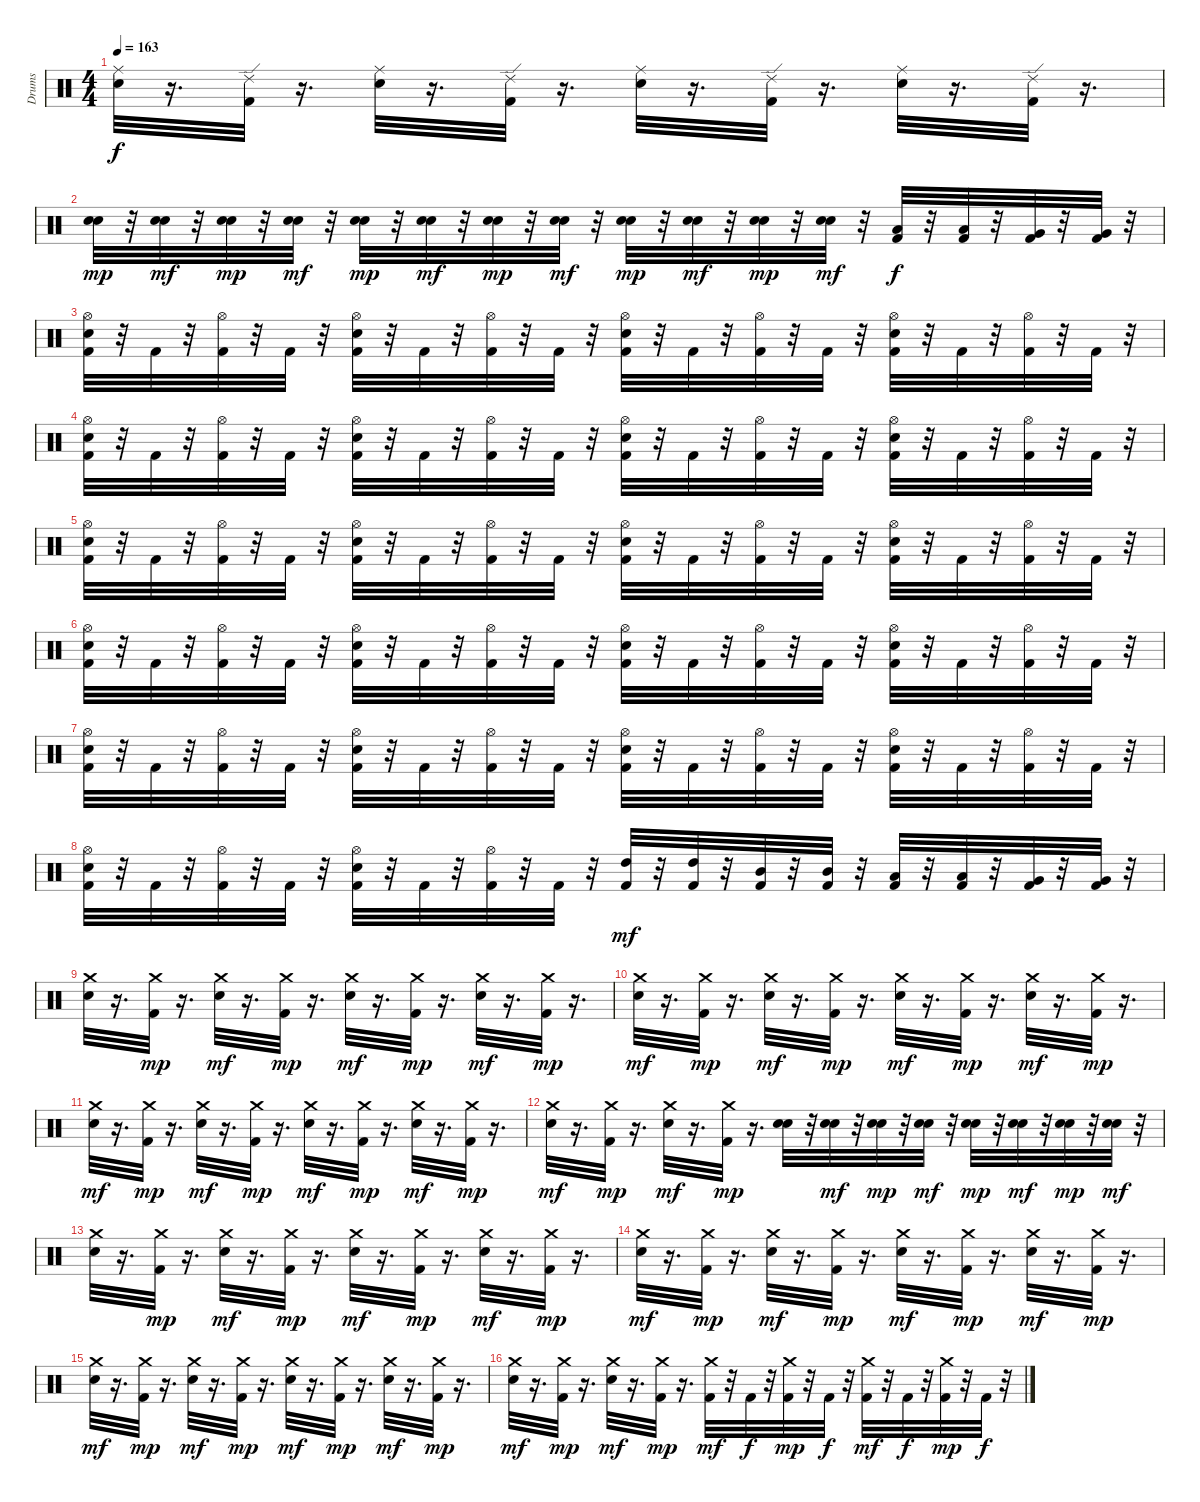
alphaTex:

\track ("Drums" "Drums") {instrument percussion}
\staff {score}
\articulation defaults
\ts (4 4)
\tempo 163
\clef neutral
\ks c
("Snare (hit) 2" "Ride (middle)").32{dy f} r.16{d} ("Kick (hit) 2" "Ride (edge) 2").32 r.16{d} ("Snare (hit) 2" "Ride (middle)").32 r.16{d} ("Kick (hit) 2" "Ride (edge) 2").32 r.16{d} ("Snare (hit) 2" "Ride (middle)").32 r.16{d} ("Kick (hit) 2" "Ride (edge) 2").32 r.16{d} ("Snare (hit) 2" "Ride (middle)").32 r.16{d} ("Kick (hit) 2" "Ride (edge) 2").32 r.16{d} |
("Snare (hit) 2" "Electric Snare (hit)").32{dy mp} r.32 ("Snare (hit) 2" "Electric Snare (hit)").32{dy mf} r.32 ("Snare (hit) 2" "Electric Snare (hit)").32{dy mp} r.32 ("Snare (hit) 2" "Electric Snare (hit)").32{dy mf} r.32 ("Snare (hit) 2" "Electric Snare (hit)").32{dy mp} r.32 ("Snare (hit) 2" "Electric Snare (hit)").32{dy mf} r.32 ("Snare (hit) 2" "Electric Snare (hit)").32{dy mp} r.32 ("Snare (hit) 2" "Electric Snare (hit)").32{dy mf} r.32 ("Snare (hit) 2" "Electric Snare (hit)").32{dy mp} r.32 ("Snare (hit) 2" "Electric Snare (hit)").32{dy mf} r.32 ("Snare (hit) 2" "Electric Snare (hit)").32{dy mp} r.32 ("Snare (hit) 2" "Electric Snare (hit)").32{dy mf} r.32 ("Kick (hit) 2" "Low Tom (hit)").32{dy f} r.32 ("Kick (hit) 2" "Low Tom (hit)").32 r.32 ("Kick (hit) 2" "Very Low Tom (hit)").32 r.32 ("Kick (hit) 2" "Very Low Tom (hit)").32 r.32 |
("Kick (hit) 2" "Snare (hit) 2" "Hi-Hat (open)").32 r.32 "Kick (hit) 2".32 r.32 ("Kick (hit) 2" "Hi-Hat (open)").32 r.32 "Kick (hit) 2".32 r.32 ("Kick (hit) 2" "Snare (hit) 2" "Hi-Hat (open)").32 r.32 "Kick (hit) 2".32 r.32 ("Kick (hit) 2" "Hi-Hat (open)").32 r.32 "Kick (hit) 2".32 r.32 ("Kick (hit) 2" "Snare (hit) 2" "Hi-Hat (open)").32 r.32 "Kick (hit) 2".32 r.32 ("Kick (hit) 2" "Hi-Hat (open)").32 r.32 "Kick (hit) 2".32 r.32 ("Kick (hit) 2" "Snare (hit) 2" "Hi-Hat (open)").32 r.32 "Kick (hit) 2".32 r.32 ("Kick (hit) 2" "Hi-Hat (open)").32 r.32 "Kick (hit) 2".32 r.32 |
("Kick (hit) 2" "Snare (hit) 2" "Hi-Hat (open)").32 r.32 "Kick (hit) 2".32 r.32 ("Kick (hit) 2" "Hi-Hat (open)").32 r.32 "Kick (hit) 2".32 r.32 ("Kick (hit) 2" "Snare (hit) 2" "Hi-Hat (open)").32 r.32 "Kick (hit) 2".32 r.32 ("Kick (hit) 2" "Hi-Hat (open)").32 r.32 "Kick (hit) 2".32 r.32 ("Kick (hit) 2" "Snare (hit) 2" "Hi-Hat (open)").32 r.32 "Kick (hit) 2".32 r.32 ("Kick (hit) 2" "Hi-Hat (open)").32 r.32 "Kick (hit) 2".32 r.32 ("Kick (hit) 2" "Snare (hit) 2" "Hi-Hat (open)").32 r.32 "Kick (hit) 2".32 r.32 ("Kick (hit) 2" "Hi-Hat (open)").32 r.32 "Kick (hit) 2".32 r.32 |
("Kick (hit) 2" "Snare (hit) 2" "Hi-Hat (open)").32 r.32 "Kick (hit) 2".32 r.32 ("Kick (hit) 2" "Hi-Hat (open)").32 r.32 "Kick (hit) 2".32 r.32 ("Kick (hit) 2" "Snare (hit) 2" "Hi-Hat (open)").32 r.32 "Kick (hit) 2".32 r.32 ("Kick (hit) 2" "Hi-Hat (open)").32 r.32 "Kick (hit) 2".32 r.32 ("Kick (hit) 2" "Snare (hit) 2" "Hi-Hat (open)").32 r.32 "Kick (hit) 2".32 r.32 ("Kick (hit) 2" "Hi-Hat (open)").32 r.32 "Kick (hit) 2".32 r.32 ("Kick (hit) 2" "Snare (hit) 2" "Hi-Hat (open)").32 r.32 "Kick (hit) 2".32 r.32 ("Kick (hit) 2" "Hi-Hat (open)").32 r.32 "Kick (hit) 2".32 r.32 |
("Kick (hit) 2" "Snare (hit) 2" "Hi-Hat (open)").32 r.32 "Kick (hit) 2".32 r.32 ("Kick (hit) 2" "Hi-Hat (open)").32 r.32 "Kick (hit) 2".32 r.32 ("Kick (hit) 2" "Snare (hit) 2" "Hi-Hat (open)").32 r.32 "Kick (hit) 2".32 r.32 ("Kick (hit) 2" "Hi-Hat (open)").32 r.32 "Kick (hit) 2".32 r.32 ("Kick (hit) 2" "Snare (hit) 2" "Hi-Hat (open)").32 r.32 "Kick (hit) 2".32 r.32 ("Kick (hit) 2" "Hi-Hat (open)").32 r.32 "Kick (hit) 2".32 r.32 ("Kick (hit) 2" "Snare (hit) 2" "Hi-Hat (open)").32 r.32 "Kick (hit) 2".32 r.32 ("Kick (hit) 2" "Hi-Hat (open)").32 r.32 "Kick (hit) 2".32 r.32 |
("Kick (hit) 2" "Snare (hit) 2" "Hi-Hat (open)").32 r.32 "Kick (hit) 2".32 r.32 ("Kick (hit) 2" "Hi-Hat (open)").32 r.32 "Kick (hit) 2".32 r.32 ("Kick (hit) 2" "Snare (hit) 2" "Hi-Hat (open)").32 r.32 "Kick (hit) 2".32 r.32 ("Kick (hit) 2" "Hi-Hat (open)").32 r.32 "Kick (hit) 2".32 r.32 ("Kick (hit) 2" "Snare (hit) 2" "Hi-Hat (open)").32 r.32 "Kick (hit) 2".32 r.32 ("Kick (hit) 2" "Hi-Hat (open)").32 r.32 "Kick (hit) 2".32 r.32 ("Kick (hit) 2" "Snare (hit) 2" "Hi-Hat (open)").32 r.32 "Kick (hit) 2".32 r.32 ("Kick (hit) 2" "Hi-Hat (open)").32 r.32 "Kick (hit) 2".32 r.32 |
("Kick (hit) 2" "Snare (hit) 2" "Hi-Hat (open)").32 r.32 "Kick (hit) 2".32 r.32 ("Kick (hit) 2" "Hi-Hat (open)").32 r.32 "Kick (hit) 2".32 r.32 ("Kick (hit) 2" "Snare (hit) 2" "Hi-Hat (open)").32 r.32 "Kick (hit) 2".32 r.32 ("Kick (hit) 2" "Hi-Hat (open)").32 r.32 "Kick (hit) 2".32 r.32 ("Kick (hit) 2" "High Tom (hit)").32{dy mf} r.32 ("Kick (hit) 2" "High Tom (hit)").32 r.32 ("Kick (hit) 2" "Mid Tom (hit)").32 r.32 ("Kick (hit) 2" "Mid Tom (hit)").32 r.32 ("Kick (hit) 2" "Low Tom (hit)").32 r.32 ("Kick (hit) 2" "Low Tom (hit)").32 r.32 ("Kick (hit) 2" "Very Low Tom (hit)").32 r.32 ("Kick (hit) 2" "Very Low Tom (hit)").32 r.32 |
("Snare (hit) 2" "Crash medium (hit)").32 r.16{d} ("Kick (hit) 2" "Crash medium (hit)").32{dy mp} r.16{d} ("Snare (hit) 2" "Crash medium (hit)").32{dy mf} r.16{d} ("Kick (hit) 2" "Crash medium (hit)").32{dy mp} r.16{d} ("Snare (hit) 2" "Crash medium (hit)").32{dy mf} r.16{d} ("Kick (hit) 2" "Crash medium (hit)").32{dy mp} r.16{d} ("Snare (hit) 2" "Crash medium (hit)").32{dy mf} r.16{d} ("Kick (hit) 2" "Crash medium (hit)").32{dy mp} r.16{d} |
("Snare (hit) 2" "Crash medium (hit)").32{dy mf} r.16{d} ("Kick (hit) 2" "Crash medium (hit)").32{dy mp} r.16{d} ("Snare (hit) 2" "Crash medium (hit)").32{dy mf} r.16{d} ("Kick (hit) 2" "Crash medium (hit)").32{dy mp} r.16{d} ("Snare (hit) 2" "Crash medium (hit)").32{dy mf} r.16{d} ("Kick (hit) 2" "Crash medium (hit)").32{dy mp} r.16{d} ("Snare (hit) 2" "Crash medium (hit)").32{dy mf} r.16{d} ("Kick (hit) 2" "Crash medium (hit)").32{dy mp} r.16{d} |
("Snare (hit) 2" "Crash medium (hit)").32{dy mf} r.16{d} ("Kick (hit) 2" "Crash medium (hit)").32{dy mp} r.16{d} ("Snare (hit) 2" "Crash medium (hit)").32{dy mf} r.16{d} ("Kick (hit) 2" "Crash medium (hit)").32{dy mp} r.16{d} ("Snare (hit) 2" "Crash medium (hit)").32{dy mf} r.16{d} ("Kick (hit) 2" "Crash medium (hit)").32{dy mp} r.16{d} ("Snare (hit) 2" "Crash medium (hit)").32{dy mf} r.16{d} ("Kick (hit) 2" "Crash medium (hit)").32{dy mp} r.16{d} |
("Snare (hit) 2" "Crash medium (hit)").32{dy mf} r.16{d} ("Kick (hit) 2" "Crash medium (hit)").32{dy mp} r.16{d} ("Snare (hit) 2" "Crash medium (hit)").32{dy mf} r.16{d} ("Kick (hit) 2" "Crash medium (hit)").32{dy mp} r.16{d} ("Snare (hit) 2" "Electric Snare (hit)").32 r.32 ("Snare (hit) 2" "Electric Snare (hit)").32{dy mf} r.32 ("Snare (hit) 2" "Electric Snare (hit)").32{dy mp} r.32 ("Snare (hit) 2" "Electric Snare (hit)").32{dy mf} r.32 ("Snare (hit) 2" "Electric Snare (hit)").32{dy mp} r.32 ("Snare (hit) 2" "Electric Snare (hit)").32{dy mf} r.32 ("Snare (hit) 2" "Electric Snare (hit)").32{dy mp} r.32 ("Snare (hit) 2" "Electric Snare (hit)").32{dy mf} r.32 |
("Snare (hit) 2" "Crash medium (hit)").32 r.16{d} ("Kick (hit) 2" "Crash medium (hit)").32{dy mp} r.16{d} ("Snare (hit) 2" "Crash medium (hit)").32{dy mf} r.16{d} ("Kick (hit) 2" "Crash medium (hit)").32{dy mp} r.16{d} ("Snare (hit) 2" "Crash medium (hit)").32{dy mf} r.16{d} ("Kick (hit) 2" "Crash medium (hit)").32{dy mp} r.16{d} ("Snare (hit) 2" "Crash medium (hit)").32{dy mf} r.16{d} ("Kick (hit) 2" "Crash medium (hit)").32{dy mp} r.16{d} |
("Snare (hit) 2" "Crash medium (hit)").32{dy mf} r.16{d} ("Kick (hit) 2" "Crash medium (hit)").32{dy mp} r.16{d} ("Snare (hit) 2" "Crash medium (hit)").32{dy mf} r.16{d} ("Kick (hit) 2" "Crash medium (hit)").32{dy mp} r.16{d} ("Snare (hit) 2" "Crash medium (hit)").32{dy mf} r.16{d} ("Kick (hit) 2" "Crash medium (hit)").32{dy mp} r.16{d} ("Snare (hit) 2" "Crash medium (hit)").32{dy mf} r.16{d} ("Kick (hit) 2" "Crash medium (hit)").32{dy mp} r.16{d} |
("Snare (hit) 2" "Crash medium (hit)").32{dy mf} r.16{d} ("Kick (hit) 2" "Crash medium (hit)").32{dy mp} r.16{d} ("Snare (hit) 2" "Crash medium (hit)").32{dy mf} r.16{d} ("Kick (hit) 2" "Crash medium (hit)").32{dy mp} r.16{d} ("Snare (hit) 2" "Crash medium (hit)").32{dy mf} r.16{d} ("Kick (hit) 2" "Crash medium (hit)").32{dy mp} r.16{d} ("Snare (hit) 2" "Crash medium (hit)").32{dy mf} r.16{d} ("Kick (hit) 2" "Crash medium (hit)").32{dy mp} r.16{d} |
("Snare (hit) 2" "Crash medium (hit)").32{dy mf} r.16{d} ("Kick (hit) 2" "Crash medium (hit)").32{dy mp} r.16{d} ("Snare (hit) 2" "Crash medium (hit)").32{dy mf} r.16{d} ("Kick (hit) 2" "Crash medium (hit)").32{dy mp} r.16{d} ("Kick (hit) 2" "Crash medium (hit)").32{dy mf} r.32 "Kick (hit) 2".32{dy f} r.32 ("Kick (hit) 2" "Crash medium (hit)").32{dy mp} r.32 "Kick (hit) 2".32{dy f} r.32 ("Kick (hit) 2" "Crash medium (hit)").32{dy mf} r.32 "Kick (hit) 2".32{dy f} r.32 ("Kick (hit) 2" "Crash medium (hit)").32{dy mp} r.32 "Kick (hit) 2".32{dy f} r.32
